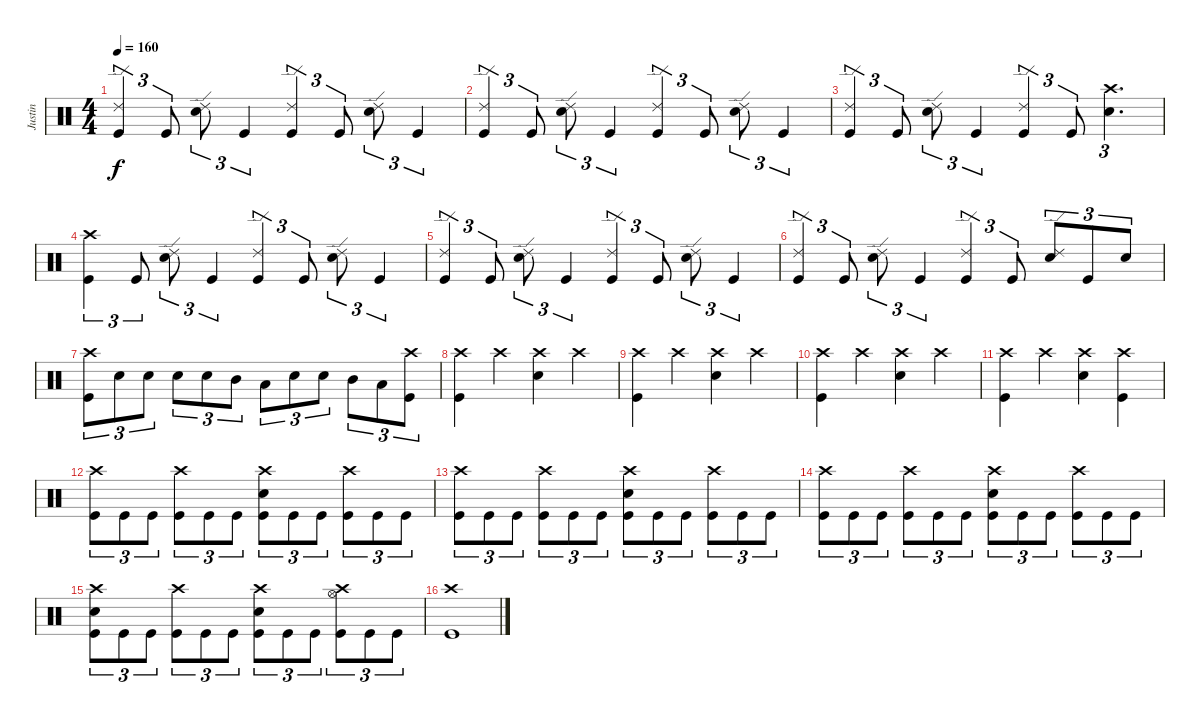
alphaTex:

\track ("Justin" "Justin") {instrument percussion}
\staff {score}
\articulation defaults
\ts (4 4)
\tempo 160
\clef neutral
\ks c
("Ride (edge) 2" "Kick (hit)").4{tu (3 2) dy f} "Kick (hit)".8{tu (3 2)} ("Ride (edge) 2" "Electric Snare (hit)").8{tu (3 2)} "Kick (hit)".4{tu (3 2)} ("Ride (edge) 2" "Kick (hit)").4{tu (3 2)} "Kick (hit)".8{tu (3 2)} ("Ride (edge) 2" "Electric Snare (hit)").8{tu (3 2)} "Kick (hit)".4{tu (3 2)} |
("Ride (edge) 2" "Kick (hit)").4{tu (3 2)} "Kick (hit)".8{tu (3 2)} ("Ride (edge) 2" "Electric Snare (hit)").8{tu (3 2)} "Kick (hit)".4{tu (3 2)} ("Ride (edge) 2" "Kick (hit)").4{tu (3 2)} "Kick (hit)".8{tu (3 2)} ("Ride (edge) 2" "Electric Snare (hit)").8{tu (3 2)} "Kick (hit)".4{tu (3 2)} |
("Ride (edge) 2" "Kick (hit)").4{tu (3 2)} "Kick (hit)".8{tu (3 2)} ("Ride (edge) 2" "Electric Snare (hit)").8{tu (3 2)} "Kick (hit)".4{tu (3 2)} ("Ride (edge) 2" "Kick (hit)").4{tu (3 2)} "Kick (hit)".8{tu (3 2)} ("Crash high (hit)" "Electric Snare (hit)").4{d tu (3 2)} |
("Crash high (hit)" "Kick (hit)").4{tu (3 2)} "Kick (hit)".8{tu (3 2)} ("Ride (edge) 2" "Electric Snare (hit)").8{tu (3 2)} "Kick (hit)".4{tu (3 2)} ("Ride (edge) 2" "Kick (hit)").4{tu (3 2)} "Kick (hit)".8{tu (3 2)} ("Ride (edge) 2" "Electric Snare (hit)").8{tu (3 2)} "Kick (hit)".4{tu (3 2)} |
("Ride (edge) 2" "Kick (hit)").4{tu (3 2)} "Kick (hit)".8{tu (3 2)} ("Ride (edge) 2" "Electric Snare (hit)").8{tu (3 2)} "Kick (hit)".4{tu (3 2)} ("Ride (edge) 2" "Kick (hit)").4{tu (3 2)} "Kick (hit)".8{tu (3 2)} ("Ride (edge) 2" "Electric Snare (hit)").8{tu (3 2)} "Kick (hit)".4{tu (3 2)} |
("Ride (edge) 2" "Kick (hit)").4{tu (3 2)} "Kick (hit)".8{tu (3 2)} ("Ride (edge) 2" "Electric Snare (hit)").8{tu (3 2)} "Kick (hit)".4{tu (3 2)} ("Ride (edge) 2" "Kick (hit)").4{tu (3 2)} "Kick (hit)".8{tu (3 2)} ("Ride (edge) 2" "Electric Snare (hit)").8{tu (3 2)} "Kick (hit)".8{tu (3 2)} "Electric Snare (hit)".8{tu (3 2)} |
("Crash high (hit)" "Kick (hit)").8{tu (3 2)} "Electric Snare (hit)".8{tu (3 2)} "Electric Snare (hit)".8{tu (3 2)} "Electric Snare (hit)".8{tu (3 2)} "Electric Snare (hit)".8{tu (3 2)} "Mid Tom (hit)".8{tu (3 2)} "Low Tom (hit)".8{tu (3 2)} "Electric Snare (hit)".8{tu (3 2)} "Electric Snare (hit)".8{tu (3 2)} "Mid Tom (hit)".8{tu (3 2)} "Low Tom (hit)".8{tu (3 2)} ("Crash high (hit)" "Kick (hit)").8{tu (3 2)} |
("Crash high (hit)" "Kick (hit)").4 "Crash high (hit)".4 ("Crash high (hit)" "Electric Snare (hit)").4 "Crash high (hit)".4 |
("Crash high (hit)" "Kick (hit)").4 "Crash high (hit)".4 ("Crash high (hit)" "Electric Snare (hit)").4 "Crash high (hit)".4 |
("Crash high (hit)" "Kick (hit)").4 "Crash high (hit)".4 ("Crash high (hit)" "Electric Snare (hit)").4 "Crash high (hit)".4 |
("Crash high (hit)" "Kick (hit)").4 "Crash high (hit)".4 ("Crash high (hit)" "Electric Snare (hit)").4 ("Crash high (hit)" "Kick (hit)").4 |
("Crash high (hit)" "Kick (hit)").8{tu (3 2)} "Kick (hit)".8{tu (3 2)} "Kick (hit)".8{tu (3 2)} ("Crash high (hit)" "Kick (hit)").8{tu (3 2)} "Kick (hit)".8{tu (3 2)} "Kick (hit)".8{tu (3 2)} ("Electric Snare (hit)" "Crash high (hit)" "Kick (hit)").8{tu (3 2)} "Kick (hit)".8{tu (3 2)} "Kick (hit)".8{tu (3 2)} ("Crash high (hit)" "Kick (hit)").8{tu (3 2)} "Kick (hit)".8{tu (3 2)} "Kick (hit)".8{tu (3 2)} |
("Crash high (hit)" "Kick (hit)").8{tu (3 2)} "Kick (hit)".8{tu (3 2)} "Kick (hit)".8{tu (3 2)} ("Crash high (hit)" "Kick (hit)").8{tu (3 2)} "Kick (hit)".8{tu (3 2)} "Kick (hit)".8{tu (3 2)} ("Electric Snare (hit)" "Crash high (hit)" "Kick (hit)").8{tu (3 2)} "Kick (hit)".8{tu (3 2)} "Kick (hit)".8{tu (3 2)} ("Crash high (hit)" "Kick (hit)").8{tu (3 2)} "Kick (hit)".8{tu (3 2)} "Kick (hit)".8{tu (3 2)} |
("Crash high (hit)" "Kick (hit)").8{tu (3 2)} "Kick (hit)".8{tu (3 2)} "Kick (hit)".8{tu (3 2)} ("Crash high (hit)" "Kick (hit)").8{tu (3 2)} "Kick (hit)".8{tu (3 2)} "Kick (hit)".8{tu (3 2)} ("Electric Snare (hit)" "Crash high (hit)" "Kick (hit)").8{tu (3 2)} "Kick (hit)".8{tu (3 2)} "Kick (hit)".8{tu (3 2)} ("Crash high (hit)" "Kick (hit)").8{tu (3 2)} "Kick (hit)".8{tu (3 2)} "Kick (hit)".8{tu (3 2)} |
("Electric Snare (hit)" "Crash high (hit)" "Kick (hit)").8{tu (3 2)} "Kick (hit)".8{tu (3 2)} "Kick (hit)".8{tu (3 2)} ("Crash high (hit)" "Kick (hit)").8{tu (3 2)} "Kick (hit)".8{tu (3 2)} "Kick (hit)".8{tu (3 2)} ("Electric Snare (hit)" "Crash high (hit)" "Kick (hit)").8{tu (3 2)} "Kick (hit)".8{tu (3 2)} "Kick (hit)".8{tu (3 2)} ("Hi-Hat (open)" "Crash high (hit)" "Kick (hit)").8{tu (3 2)} "Kick (hit)".8{tu (3 2)} "Kick (hit)".8{tu (3 2)} |
("Crash high (hit)" "Kick (hit)").1
